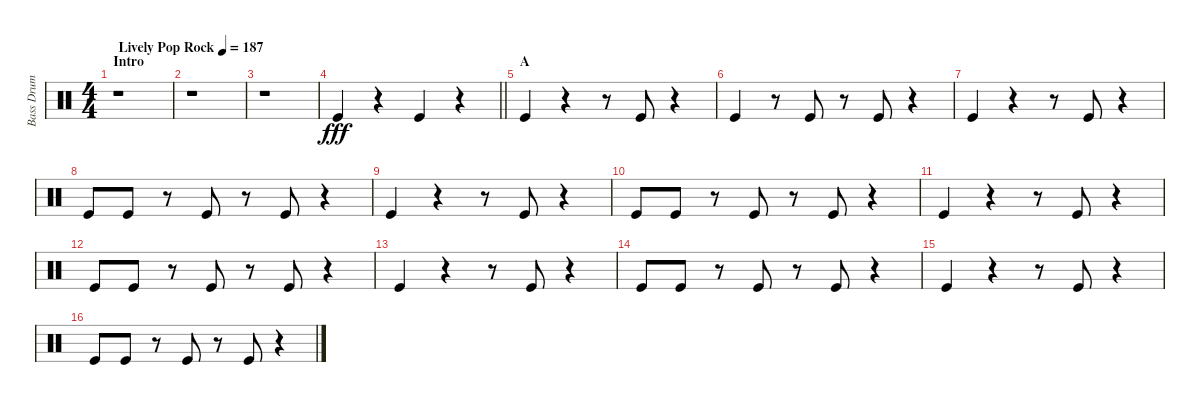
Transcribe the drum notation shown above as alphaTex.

\track ("Bass Drum" "Bass Drum") {instrument percussion}
\staff {score}
\articulation defaults
\ts (4 4)
\section ("" "Intro")
\tempo (187 "Lively Pop Rock")
\clef neutral
\ks c
r.1{dy fff} |
r.1 |
r.1 |
\barLineRight lightlight "Kick (hit)".4
r.4 "Kick (hit)".4 r.4 |
\section ("" "A")
"Kick (hit)".4 r.4 r.8 "Kick (hit)".8 r.4 |
"Kick (hit)".4 r.8 "Kick (hit)".8 r.8 "Kick (hit)".8 r.4 |
"Kick (hit)".4 r.4 r.8 "Kick (hit)".8 r.4 |
"Kick (hit)".8 "Kick (hit)".8 r.8 "Kick (hit)".8 r.8 "Kick (hit)".8 r.4 |
"Kick (hit)".4 r.4 r.8 "Kick (hit)".8 r.4 |
"Kick (hit)".8 "Kick (hit)".8 r.8 "Kick (hit)".8 r.8 "Kick (hit)".8 r.4 |
"Kick (hit)".4 r.4 r.8 "Kick (hit)".8 r.4 |
"Kick (hit)".8 "Kick (hit)".8 r.8 "Kick (hit)".8 r.8 "Kick (hit)".8 r.4 |
"Kick (hit)".4 r.4 r.8 "Kick (hit)".8 r.4 |
"Kick (hit)".8 "Kick (hit)".8 r.8 "Kick (hit)".8 r.8 "Kick (hit)".8 r.4 |
"Kick (hit)".4 r.4 r.8 "Kick (hit)".8 r.4 |
"Kick (hit)".8 "Kick (hit)".8 r.8 "Kick (hit)".8 r.8 "Kick (hit)".8 r.4
